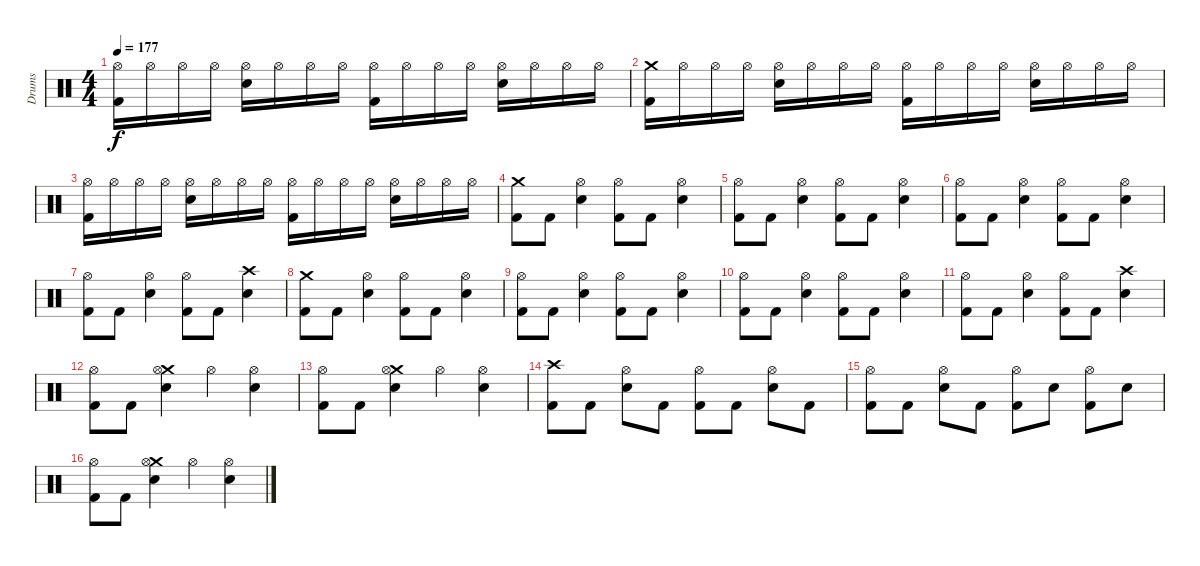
\track ("Drums" "Drums") {solo instrument percussion}
\staff {score}
\articulation defaults
\ts (4 4)
\tempo 177
\clef neutral
\ks c
("Hi-Hat (open)" "Kick (hit) 2").16{dy f} "Hi-Hat (open)".16 "Hi-Hat (open)".16 "Hi-Hat (open)".16 ("Hi-Hat (open)" "Snare (hit) 2").16 "Hi-Hat (open)".16 "Hi-Hat (open)".16 "Hi-Hat (open)".16 ("Hi-Hat (open)" "Kick (hit) 2").16 "Hi-Hat (open)".16 "Hi-Hat (open)".16 "Hi-Hat (open)".16 ("Hi-Hat (open)" "Snare (hit) 2").16 "Hi-Hat (open)".16 "Hi-Hat (open)".16 "Hi-Hat (open)".16 |
("Crash medium (hit)" "Kick (hit) 2").16 "Hi-Hat (open)".16 "Hi-Hat (open)".16 "Hi-Hat (open)".16 ("Hi-Hat (open)" "Snare (hit) 2").16 "Hi-Hat (open)".16 "Hi-Hat (open)".16 "Hi-Hat (open)".16 ("Hi-Hat (open)" "Kick (hit) 2").16 "Hi-Hat (open)".16 "Hi-Hat (open)".16 "Hi-Hat (open)".16 ("Hi-Hat (open)" "Snare (hit) 2").16 "Hi-Hat (open)".16 "Hi-Hat (open)".16 "Hi-Hat (open)".16 |
("Hi-Hat (open)" "Kick (hit) 2").16 "Hi-Hat (open)".16 "Hi-Hat (open)".16 "Hi-Hat (open)".16 ("Hi-Hat (open)" "Snare (hit) 2").16 "Hi-Hat (open)".16 "Hi-Hat (open)".16 "Hi-Hat (open)".16 ("Hi-Hat (open)" "Kick (hit) 2").16 "Hi-Hat (open)".16 "Hi-Hat (open)".16 "Hi-Hat (open)".16 ("Hi-Hat (open)" "Snare (hit) 2").16 "Hi-Hat (open)".16 "Hi-Hat (open)".16 "Hi-Hat (open)".16 |
("Crash medium (hit)" "Kick (hit) 2").8 "Kick (hit) 2".8 ("Hi-Hat (open)" "Snare (hit) 2").4 ("Hi-Hat (open)" "Kick (hit) 2").8 "Kick (hit) 2".8 ("Hi-Hat (open)" "Snare (hit) 2").4 |
("Hi-Hat (open)" "Kick (hit) 2").8 "Kick (hit) 2".8 ("Hi-Hat (open)" "Snare (hit) 2").4 ("Hi-Hat (open)" "Kick (hit) 2").8 "Kick (hit) 2".8 ("Hi-Hat (open)" "Snare (hit) 2").4 |
("Hi-Hat (open)" "Kick (hit) 2").8 "Kick (hit) 2".8 ("Hi-Hat (open)" "Snare (hit) 2").4 ("Hi-Hat (open)" "Kick (hit) 2").8 "Kick (hit) 2".8 ("Hi-Hat (open)" "Snare (hit) 2").4 |
("Hi-Hat (open)" "Kick (hit) 2").8 "Kick (hit) 2".8 ("Hi-Hat (open)" "Snare (hit) 2").4 ("Hi-Hat (open)" "Kick (hit) 2").8 "Kick (hit) 2".8 ("Crash high (hit)" "Snare (hit) 2").4 |
("Crash medium (hit)" "Kick (hit) 2").8 "Kick (hit) 2".8 ("Hi-Hat (open)" "Snare (hit) 2").4 ("Hi-Hat (open)" "Kick (hit) 2").8 "Kick (hit) 2".8 ("Hi-Hat (open)" "Snare (hit) 2").4 |
("Hi-Hat (open)" "Kick (hit) 2").8 "Kick (hit) 2".8 ("Hi-Hat (open)" "Snare (hit) 2").4 ("Hi-Hat (open)" "Kick (hit) 2").8 "Kick (hit) 2".8 ("Hi-Hat (open)" "Snare (hit) 2").4 |
("Hi-Hat (open)" "Kick (hit) 2").8 "Kick (hit) 2".8 ("Hi-Hat (open)" "Snare (hit) 2").4 ("Hi-Hat (open)" "Kick (hit) 2").8 "Kick (hit) 2".8 ("Hi-Hat (open)" "Snare (hit) 2").4 |
("Hi-Hat (open)" "Kick (hit) 2").8 "Kick (hit) 2".8 ("Hi-Hat (open)" "Snare (hit) 2").4 ("Hi-Hat (open)" "Kick (hit) 2").8 "Kick (hit) 2".8 ("Crash high (hit)" "Snare (hit) 2").4 |
("Hi-Hat (open)" "Kick (hit) 2").8 "Kick (hit) 2".8 ("Crash medium (hit)" "Hi-Hat (open)" "Snare (hit) 2").4 "Hi-Hat (open)".4 ("Hi-Hat (open)" "Snare (hit) 2").4 |
("Hi-Hat (open)" "Kick (hit) 2").8 "Kick (hit) 2".8 ("Crash medium (hit)" "Hi-Hat (open)" "Snare (hit) 2").4 "Hi-Hat (open)".4 ("Hi-Hat (open)" "Snare (hit) 2").4 |
("Crash high (hit)" "Kick (hit) 2").8 "Kick (hit) 2".8 ("Hi-Hat (open)" "Snare (hit) 2").8 "Kick (hit) 2".8 ("Hi-Hat (open)" "Kick (hit) 2").8 "Kick (hit) 2".8 ("Hi-Hat (open)" "Snare (hit) 2").8 "Kick (hit) 2".8 |
("Hi-Hat (open)" "Kick (hit) 2").8 "Kick (hit) 2".8 ("Hi-Hat (open)" "Snare (hit) 2").8 "Kick (hit) 2".8 ("Hi-Hat (open)" "Kick (hit) 2").8 "Snare (hit) 2".8 ("Hi-Hat (open)" "Kick (hit) 2").8 "Snare (hit) 2".8 |
("Hi-Hat (open)" "Kick (hit) 2").8 "Kick (hit) 2".8 ("Crash medium (hit)" "Hi-Hat (open)" "Snare (hit) 2").4 "Hi-Hat (open)".4 ("Hi-Hat (open)" "Snare (hit) 2").4
